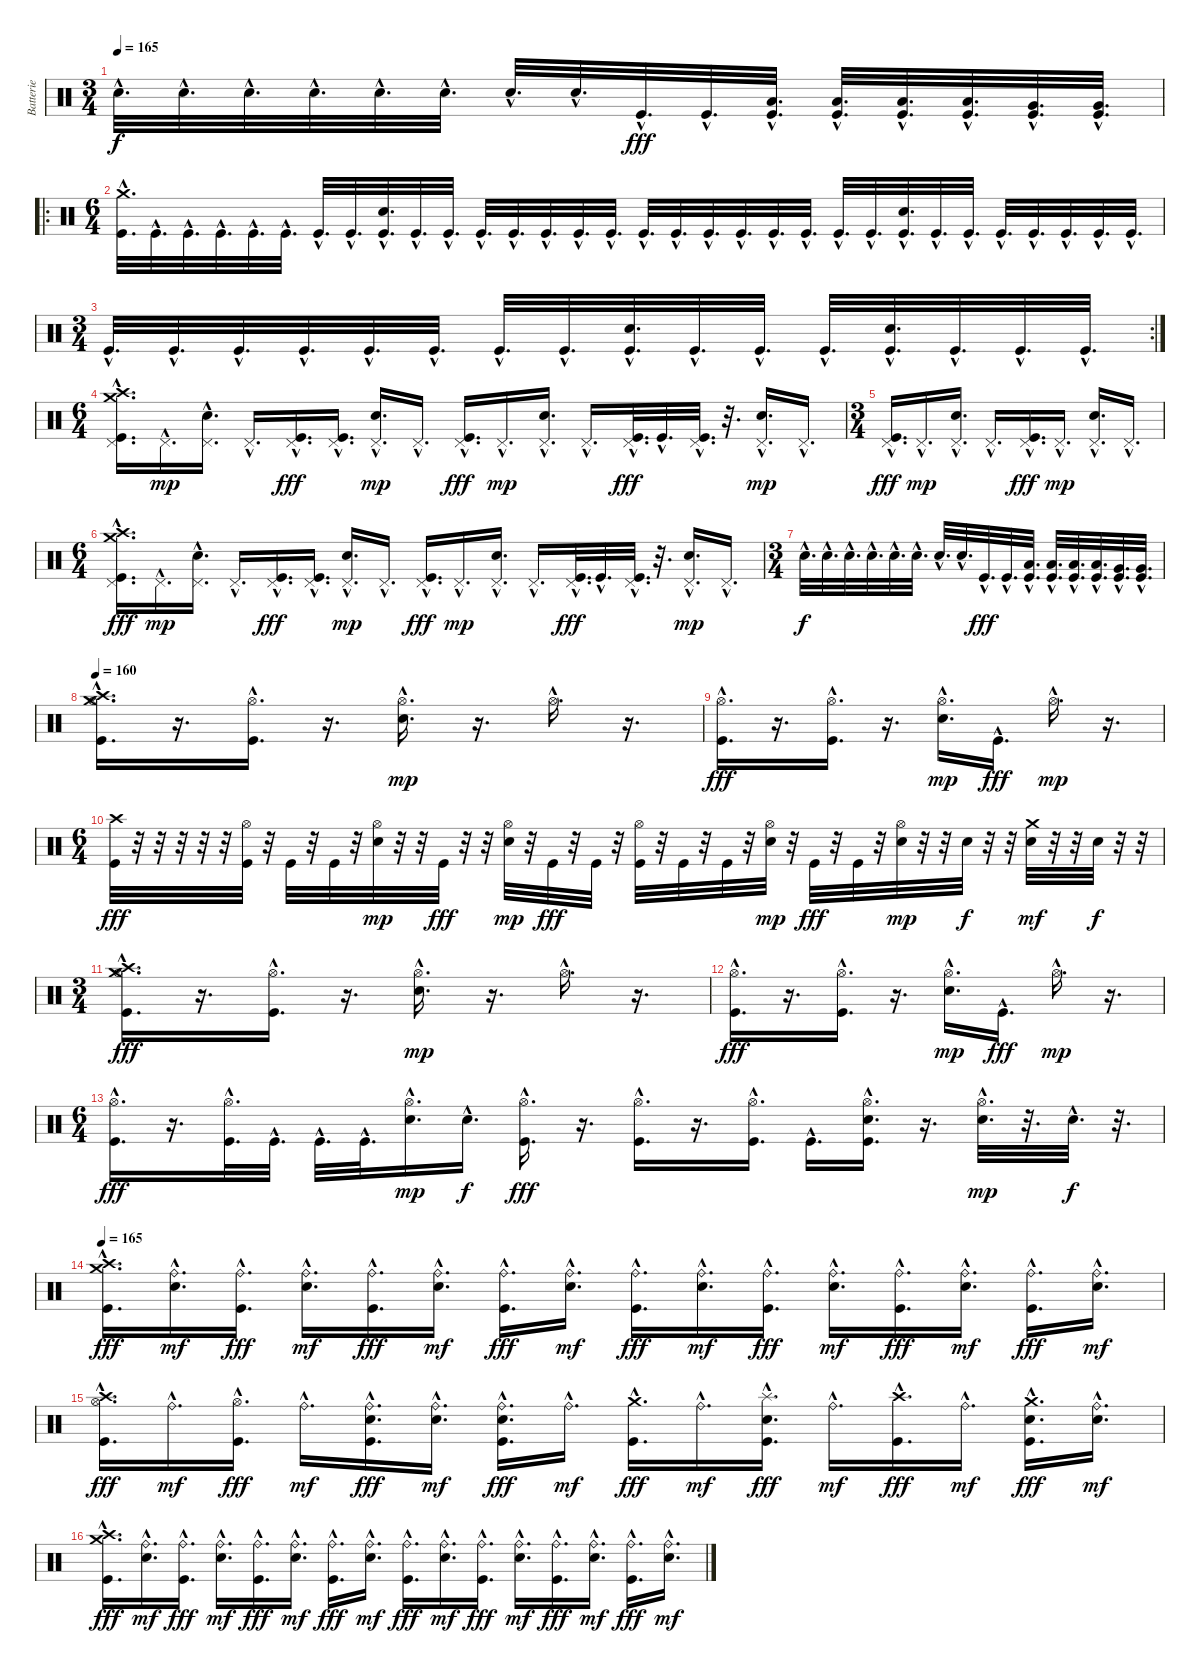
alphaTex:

\track ("Batterie" "Batterie") {instrument percussion}
\staff {score}
\articulation defaults
\ts (3 4)
\tempo 165
\clef neutral
\ks c "Electric Snare (hit)"{hac}.32{d dy f} "Electric Snare (hit)"{hac}.32{d} "Electric Snare (hit)"{hac}.32{d} "Electric Snare (hit)"{hac}.32{d} "Electric Snare (hit)"{hac}.32{d} "Electric Snare (hit)"{hac}.32{d} "Electric Snare (hit)"{hac}.32{d} "Electric Snare (hit)"{hac}.32{d} "Kick (hit)"{hac}.32{d dy fff} "Kick (hit)"{hac}.32{d}
("Low Floor Tom (hit)"{hac} "Kick (hit)"{hac}).32{d} ("Low Floor Tom (hit)"{hac} "Kick (hit)"{hac}).32{d} ("Low Floor Tom (hit)"{hac} "Kick (hit)"{hac}).32{d} ("Low Floor Tom (hit)"{hac} "Kick (hit)"{hac}).32{d} ("Very Low Tom (hit)"{hac} "Kick (hit)"{hac}).32{d} ("Very Low Tom (hit)"{hac} "Kick (hit)"{hac}).32{d} |
\ro
\ts (6 4)
("Crash medium (hit)"{hac} "Kick (hit)"{hac}).32{d} "Kick (hit)"{hac}.32{d} "Kick (hit)"{hac}.32{d} "Kick (hit)"{hac}.32{d} "Kick (hit)"{hac}.32{d} "Kick (hit)"{hac}.32{d} "Kick (hit)"{hac}.32{d} "Kick (hit)"{hac}.32{d} ("Electric Snare (hit)"{hac} "Kick (hit)"{hac}).32{d} "Kick (hit)"{hac}.32{d} "Kick (hit)"{hac}.32{d} "Kick (hit)"{hac}.32{d} "Kick (hit)"{hac}.32{d} "Kick (hit)"{hac}.32{d} "Kick (hit)"{hac}.32{d} "Kick (hit)"{hac}.32{d} "Kick (hit)"{hac}.32{d} "Kick (hit)"{hac}.32{d} "Kick (hit)"{hac}.32{d} "Kick (hit)"{hac}.32{d} "Kick (hit)"{hac}.32{d} "Kick (hit)"{hac}.32{d} "Kick (hit)"{hac}.32{d} "Kick (hit)"{hac}.32{d} ("Electric Snare (hit)"{hac} "Kick (hit)"{hac}).32{d} "Kick (hit)"{hac}.32{d} "Kick (hit)"{hac}.32{d} "Kick (hit)"{hac}.32{d} "Kick (hit)"{hac}.32{d} "Kick (hit)"{hac}.32{d} "Kick (hit)"{hac}.32{d} "Kick (hit)"{hac}.32{d} |
\rc 2
\ts (3 4)
"Kick (hit)"{hac}.32{d} "Kick (hit)"{hac}.32{d} "Kick (hit)"{hac}.32{d} "Kick (hit)"{hac}.32{d} "Kick (hit)"{hac}.32{d} "Kick (hit)"{hac}.32{d} "Kick (hit)"{hac}.32{d} "Kick (hit)"{hac}.32{d} ("Electric Snare (hit)"{hac} "Kick (hit)"{hac}).32{d} "Kick (hit)"{hac}.32{d} "Kick (hit)"{hac}.32{d} "Kick (hit)"{hac}.32{d} ("Electric Snare (hit)"{hac} "Kick (hit)"{hac}).32{d} "Kick (hit)"{hac}.32{d} "Kick (hit)"{hac}.32{d} "Kick (hit)"{hac}.32{d} |
\ts (6 4)
("Pedal Hi-Hat (hit)"{hac} "Crash medium (hit)"{hac} "Crash high (hit)"{hac} "Kick (hit)"{hac}).16{d} "Pedal Hi-Hat (hit)"{hac}.16{d dy mp} ("Pedal Hi-Hat (hit)"{hac} "Electric Snare (hit)"{hac}).16{d} "Pedal Hi-Hat (hit)"{hac}.16{d} ("Pedal Hi-Hat (hit)"{hac} "Kick (hit)"{hac}).16{d dy fff} ("Pedal Hi-Hat (hit)"{hac} "Kick (hit)"{hac}).16{d} ("Pedal Hi-Hat (hit)"{hac} "Electric Snare (hit)"{hac}).16{d dy mp} "Pedal Hi-Hat (hit)"{hac}.16{d} ("Pedal Hi-Hat (hit)"{hac} "Kick (hit)"{hac}).16{d dy fff} "Pedal Hi-Hat (hit)"{hac}.16{d dy mp} ("Pedal Hi-Hat (hit)"{hac} "Electric Snare (hit)"{hac}).16{d} "Pedal Hi-Hat (hit)"{hac}.16{d} ("Pedal Hi-Hat (hit)"{hac} "Kick (hit)"{hac}).32{d dy fff} "Kick (hit)"{hac}.32{d} ("Pedal Hi-Hat (hit)"{hac} "Kick (hit)"{hac}).32{d} r.32{d} ("Pedal Hi-Hat (hit)"{hac} "Electric Snare (hit)"{hac}).16{d dy mp} "Pedal Hi-Hat (hit)"{hac}.16{d} |
\ts (3 4)
("Pedal Hi-Hat (hit)"{hac} "Kick (hit)"{hac}).16{d dy fff} "Pedal Hi-Hat (hit)"{hac}.16{d dy mp} ("Pedal Hi-Hat (hit)"{hac} "Electric Snare (hit)"{hac}).16{d} "Pedal Hi-Hat (hit)"{hac}.16{d} ("Pedal Hi-Hat (hit)"{hac} "Kick (hit)"{hac}).16{d dy fff} "Pedal Hi-Hat (hit)"{hac}.16{d dy mp} ("Pedal Hi-Hat (hit)"{hac} "Electric Snare (hit)"{hac}).16{d} "Pedal Hi-Hat (hit)"{hac}.16{d} |
\ts (6 4)
("Pedal Hi-Hat (hit)"{hac} "Crash medium (hit)"{hac} "Crash high (hit)"{hac} "Kick (hit)"{hac}).16{d dy fff} "Pedal Hi-Hat (hit)"{hac}.16{d dy mp} ("Pedal Hi-Hat (hit)"{hac} "Electric Snare (hit)"{hac}).16{d} "Pedal Hi-Hat (hit)"{hac}.16{d} ("Pedal Hi-Hat (hit)"{hac} "Kick (hit)"{hac}).16{d dy fff} ("Pedal Hi-Hat (hit)"{hac} "Kick (hit)"{hac}).16{d} ("Pedal Hi-Hat (hit)"{hac} "Electric Snare (hit)"{hac}).16{d dy mp} "Pedal Hi-Hat (hit)"{hac}.16{d} ("Pedal Hi-Hat (hit)"{hac} "Kick (hit)"{hac}).16{d dy fff} "Pedal Hi-Hat (hit)"{hac}.16{d dy mp} ("Pedal Hi-Hat (hit)"{hac} "Electric Snare (hit)"{hac}).16{d} "Pedal Hi-Hat (hit)"{hac}.16{d} ("Pedal Hi-Hat (hit)"{hac} "Kick (hit)"{hac}).32{d dy fff} "Kick (hit)"{hac}.32{d} ("Pedal Hi-Hat (hit)"{hac} "Kick (hit)"{hac}).32{d} r.32{d} ("Pedal Hi-Hat (hit)"{hac} "Electric Snare (hit)"{hac}).16{d dy mp} "Pedal Hi-Hat (hit)"{hac}.16{d} |
\ts (3 4)
"Electric Snare (hit)"{hac}.32{d dy f} "Electric Snare (hit)"{hac}.32{d} "Electric Snare (hit)"{hac}.32{d} "Electric Snare (hit)"{hac}.32{d} "Electric Snare (hit)"{hac}.32{d} "Electric Snare (hit)"{hac}.32{d} "Electric Snare (hit)"{hac}.32{d} "Electric Snare (hit)"{hac}.32{d} "Kick (hit)"{hac}.32{d dy fff} "Kick (hit)"{hac}.32{d} ("Low Floor Tom (hit)"{hac} "Kick (hit)"{hac}).32{d} ("Low Floor Tom (hit)"{hac} "Kick (hit)"{hac}).32{d} ("Low Floor Tom (hit)"{hac} "Kick (hit)"{hac}).32{d} ("Low Floor Tom (hit)"{hac} "Kick (hit)"{hac}).32{d} ("Very Low Tom (hit)"{hac} "Kick (hit)"{hac}).32{d} ("Very Low Tom (hit)"{hac} "Kick (hit)"{hac}).32{d} |
\tempo 160
("Hi-Hat (open)"{hac} "Crash medium (hit)"{hac} "Crash high (hit)"{hac} "Kick (hit)"{hac}).16{d} r.16{d} ("Hi-Hat (open)"{hac} "Kick (hit)"{hac}).16{d} r.16{d} ("Hi-Hat (open)"{hac} "Electric Snare (hit)"{hac}).16{d dy mp} r.16{d} "Hi-Hat (open)"{hac}.16{d} r.16{d} |
("Hi-Hat (open)"{hac} "Kick (hit)"{hac}).16{d dy fff} r.16{d} ("Hi-Hat (open)"{hac} "Kick (hit)"{hac}).16{d} r.16{d} ("Hi-Hat (open)"{hac} "Electric Snare (hit)"{hac}).16{d dy mp} "Kick (hit)"{hac}.16{d dy fff} "Hi-Hat (open)"{hac}.16{d dy mp} r.16{d} |
\ts (6 4)
("Crash high (hit)" "Kick (hit)").32{dy fff} r.32 r.32 r.32 r.32 r.32 ("Hi-Hat (open)" "Kick (hit)").32 r.32 "Kick (hit)".32 r.32 "Kick (hit)".32 r.32 ("Hi-Hat (open)" "Electric Snare (hit)").32{dy mp} r.32 r.32 "Kick (hit)".32{dy fff} r.32 r.32 ("Hi-Hat (open)" "Electric Snare (hit)").32{dy mp} r.32 "Kick (hit)".32{dy fff} r.32 "Kick (hit)".32 r.32 ("Hi-Hat (open)" "Kick (hit)").32 r.32 "Kick (hit)".32 r.32 "Kick (hit)".32 r.32 ("Hi-Hat (open)" "Electric Snare (hit)").32{dy mp} r.32 "Kick (hit)".32{dy fff} r.32 "Kick (hit)".32 r.32 ("Hi-Hat (open)" "Electric Snare (hit)").32{dy mp} r.32 r.32 "Electric Snare (hit)".32{dy f} r.32 r.32 ("Crash medium (hit)" "Electric Snare (hit)").32{dy mf} r.32 r.32 "Electric Snare (hit)".32{dy f} r.32 r.32 |
\ts (3 4)
("Hi-Hat (open)"{hac} "Crash medium (hit)"{hac} "Crash high (hit)"{hac} "Kick (hit)"{hac}).16{d dy fff} r.16{d} ("Hi-Hat (open)"{hac} "Kick (hit)"{hac}).16{d} r.16{d} ("Hi-Hat (open)"{hac} "Electric Snare (hit)"{hac}).16{d dy mp} r.16{d} "Hi-Hat (open)"{hac}.16{d} r.16{d} |
("Hi-Hat (open)"{hac} "Kick (hit)"{hac}).16{d dy fff} r.16{d} ("Hi-Hat (open)"{hac} "Kick (hit)"{hac}).16{d} r.16{d} ("Hi-Hat (open)"{hac} "Electric Snare (hit)"{hac}).16{d dy mp} "Kick (hit)"{hac}.16{d dy fff} "Hi-Hat (open)"{hac}.16{d dy mp} r.16{d} |
\ts (6 4)
("Hi-Hat (open)"{hac} "Kick (hit)"{hac}).16{d dy fff} r.16{d} ("Hi-Hat (open)"{hac} "Kick (hit)"{hac}).32{d} "Kick (hit)"{hac}.32{d} "Kick (hit)"{hac}.32{d} "Kick (hit)"{hac}.32{d} ("Hi-Hat (open)"{hac} "Electric Snare (hit)"{hac}).16{d dy mp} "Electric Snare (hit)"{hac}.16{d dy f} ("Hi-Hat (open)"{hac} "Kick (hit)"{hac}).16{d dy fff} r.16{d} ("Hi-Hat (open)"{hac} "Kick (hit)"{hac}).16{d} r.16{d} ("Hi-Hat (open)"{hac} "Kick (hit)"{hac}).16{d} "Kick (hit)"{hac}.16{d} ("Hi-Hat (open)"{hac} "Electric Snare (hit)"{hac} "Kick (hit)"{hac}).16{d} r.16{d} ("Hi-Hat (open)"{hac} "Electric Snare (hit)"{hac}).32{d dy mp} r.32{d} "Electric Snare (hit)"{hac}.32{d dy f} r.32{d} |
\tempo 165
("Crash medium (hit)"{hac} "Crash high (hit)"{hac} "Kick (hit)"{hac}).16{d dy fff} ("Ride (bell)"{hac} "Electric Snare (hit)"{hac}).16{d dy mf} ("Ride (bell)"{hac} "Kick (hit)"{hac}).16{d dy fff} ("Ride (bell)"{hac} "Electric Snare (hit)"{hac}).16{d dy mf} ("Ride (bell)"{hac} "Kick (hit)"{hac}).16{d dy fff} ("Ride (bell)"{hac} "Electric Snare (hit)"{hac}).16{d dy mf} ("Ride (bell)"{hac} "Kick (hit)"{hac}).16{d dy fff} ("Ride (bell)"{hac} "Electric Snare (hit)"{hac}).16{d dy mf} ("Ride (bell)"{hac} "Kick (hit)"{hac}).16{d dy fff} ("Ride (bell)"{hac} "Electric Snare (hit)"{hac}).16{d dy mf} ("Ride (bell)"{hac} "Kick (hit)"{hac}).16{d dy fff} ("Ride (bell)"{hac} "Electric Snare (hit)"{hac}).16{d dy mf} ("Ride (bell)"{hac} "Kick (hit)"{hac}).16{d dy fff} ("Ride (bell)"{hac} "Electric Snare (hit)"{hac}).16{d dy mf} ("Ride (bell)"{hac} "Kick (hit)"{hac}).16{d dy fff} ("Ride (bell)"{hac} "Electric Snare (hit)"{hac}).16{d dy mf} |
("Hi-Hat (open)"{hac} "Crash high (hit)"{hac} "Kick (hit)"{hac}).16{d dy fff} "Ride (bell)"{hac}.16{d dy mf} ("Hi-Hat (open)"{hac} "Kick (hit)"{hac}).16{d dy fff} "Ride (bell)"{hac}.16{d dy mf} ("Ride (bell)"{hac} "Electric Snare (hit)"{hac} "Kick (hit)"{hac}).16{d dy fff} ("Ride (bell)"{hac} "Electric Snare (hit)"{hac}).16{d dy mf} ("Ride (bell)"{hac} "Electric Snare (hit)"{hac} "Kick (hit)"{hac}).16{d dy fff} "Ride (bell)"{hac}.16{d dy mf} ("Crash medium (hit)"{hac} "Kick (hit)"{hac}).16{d dy fff} "Ride (bell)"{hac}.16{d dy mf} ("Splash (hit)"{hac} "Electric Snare (hit)"{hac} "Kick (hit)"{hac}).16{d dy fff} "Ride (bell)"{hac}.16{d dy mf} ("Crash high (hit)"{hac} "Kick (hit)"{hac}).16{d dy fff} "Ride (bell)"{hac}.16{d dy mf} ("Crash medium (hit)"{hac} "Electric Snare (hit)"{hac} "Kick (hit)"{hac}).16{d dy fff} ("Ride (bell)"{hac} "Electric Snare (hit)"{hac}).16{d dy mf} |
("Crash medium (hit)"{hac} "Crash high (hit)"{hac} "Kick (hit)"{hac}).16{d dy fff} ("Ride (bell)"{hac} "Electric Snare (hit)"{hac}).16{d dy mf} ("Ride (bell)"{hac} "Kick (hit)"{hac}).16{d dy fff} ("Ride (bell)"{hac} "Electric Snare (hit)"{hac}).16{d dy mf} ("Ride (bell)"{hac} "Kick (hit)"{hac}).16{d dy fff} ("Ride (bell)"{hac} "Electric Snare (hit)"{hac}).16{d dy mf} ("Ride (bell)"{hac} "Kick (hit)"{hac}).16{d dy fff} ("Ride (bell)"{hac} "Electric Snare (hit)"{hac}).16{d dy mf} ("Ride (bell)"{hac} "Kick (hit)"{hac}).16{d dy fff} ("Ride (bell)"{hac} "Electric Snare (hit)"{hac}).16{d dy mf} ("Ride (bell)"{hac} "Kick (hit)"{hac}).16{d dy fff} ("Ride (bell)"{hac} "Electric Snare (hit)"{hac}).16{d dy mf} ("Ride (bell)"{hac} "Kick (hit)"{hac}).16{d dy fff} ("Ride (bell)"{hac} "Electric Snare (hit)"{hac}).16{d dy mf} ("Ride (bell)"{hac} "Kick (hit)"{hac}).16{d dy fff} ("Ride (bell)"{hac} "Electric Snare (hit)"{hac}).16{d dy mf}
